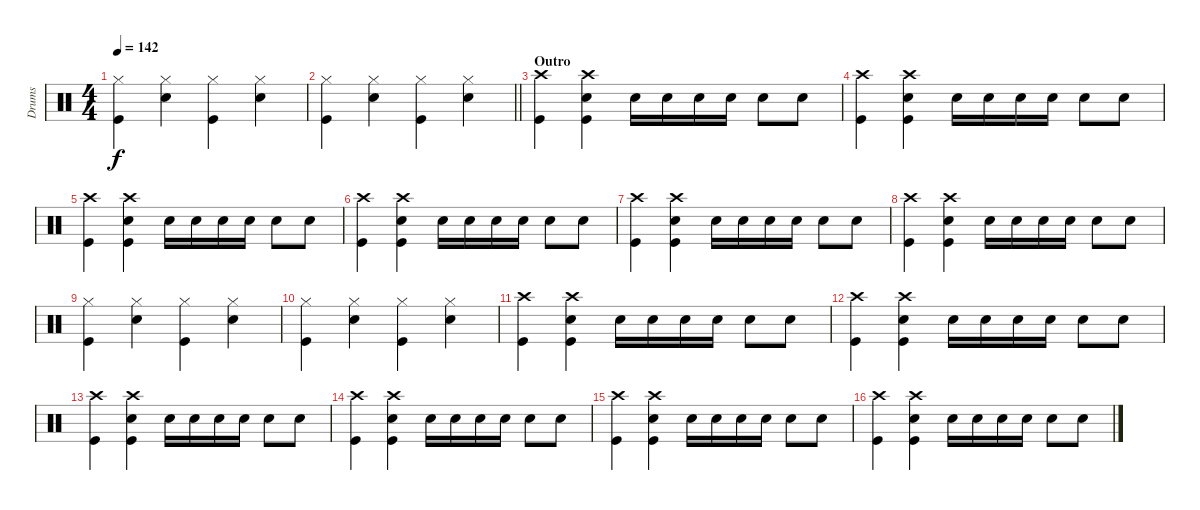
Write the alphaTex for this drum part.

\track ("Drums" "Drums") {instrument percussion}
\staff {score}
\articulation defaults
\ts (4 4)
\tempo 142
\clef neutral
\ks c
("Hi-Hat (closed)" "Kick (hit)").4{dy f} ("Hi-Hat (closed)" "Snare (hit) 2").4 ("Hi-Hat (closed)" "Kick (hit)").4 ("Hi-Hat (closed)" "Snare (hit) 2").4 |
\barLineRight lightlight
("Hi-Hat (closed)" "Kick (hit)").4 ("Hi-Hat (closed)" "Snare (hit) 2").4 ("Hi-Hat (closed)" "Kick (hit)").4 ("Hi-Hat (closed)" "Snare (hit) 2").4 |
\section ("" "Outro")
("Crash high (hit)" "Kick (hit)").4 ("Crash high (hit)" "Snare (hit) 2" "Kick (hit)").4 "Snare (hit) 2".16 "Snare (hit) 2".16 "Snare (hit) 2".16 "Snare (hit) 2".16 "Snare (hit) 2".8 "Snare (hit) 2".8 |
("Crash high (hit)" "Kick (hit)").4 ("Crash high (hit)" "Snare (hit) 2" "Kick (hit)").4 "Snare (hit) 2".16 "Snare (hit) 2".16 "Snare (hit) 2".16 "Snare (hit) 2".16 "Snare (hit) 2".8 "Snare (hit) 2".8 |
("Crash high (hit)" "Kick (hit)").4 ("Crash high (hit)" "Snare (hit) 2" "Kick (hit)").4 "Snare (hit) 2".16 "Snare (hit) 2".16 "Snare (hit) 2".16 "Snare (hit) 2".16 "Snare (hit) 2".8 "Snare (hit) 2".8 |
("Crash high (hit)" "Kick (hit)").4 ("Crash high (hit)" "Snare (hit) 2" "Kick (hit)").4 "Snare (hit) 2".16 "Snare (hit) 2".16 "Snare (hit) 2".16 "Snare (hit) 2".16 "Snare (hit) 2".8 "Snare (hit) 2".8 |
("Crash high (hit)" "Kick (hit)").4 ("Crash high (hit)" "Snare (hit) 2" "Kick (hit)").4 "Snare (hit) 2".16 "Snare (hit) 2".16 "Snare (hit) 2".16 "Snare (hit) 2".16 "Snare (hit) 2".8 "Snare (hit) 2".8 |
("Crash high (hit)" "Kick (hit)").4 ("Crash high (hit)" "Snare (hit) 2" "Kick (hit)").4 "Snare (hit) 2".16 "Snare (hit) 2".16 "Snare (hit) 2".16 "Snare (hit) 2".16 "Snare (hit) 2".8 "Snare (hit) 2".8 |
("Hi-Hat (closed)" "Kick (hit)").4 ("Hi-Hat (closed)" "Snare (hit) 2").4 ("Hi-Hat (closed)" "Kick (hit)").4 ("Hi-Hat (closed)" "Snare (hit) 2").4 |
("Hi-Hat (closed)" "Kick (hit)").4 ("Hi-Hat (closed)" "Snare (hit) 2").4 ("Hi-Hat (closed)" "Kick (hit)").4 ("Hi-Hat (closed)" "Snare (hit) 2").4 |
("Crash high (hit)" "Kick (hit)").4 ("Crash high (hit)" "Snare (hit) 2" "Kick (hit)").4 "Snare (hit) 2".16 "Snare (hit) 2".16 "Snare (hit) 2".16 "Snare (hit) 2".16 "Snare (hit) 2".8 "Snare (hit) 2".8 |
("Crash high (hit)" "Kick (hit)").4 ("Crash high (hit)" "Snare (hit) 2" "Kick (hit)").4 "Snare (hit) 2".16 "Snare (hit) 2".16 "Snare (hit) 2".16 "Snare (hit) 2".16 "Snare (hit) 2".8 "Snare (hit) 2".8 |
("Crash high (hit)" "Kick (hit)").4 ("Crash high (hit)" "Snare (hit) 2" "Kick (hit)").4 "Snare (hit) 2".16 "Snare (hit) 2".16 "Snare (hit) 2".16 "Snare (hit) 2".16 "Snare (hit) 2".8 "Snare (hit) 2".8 |
("Crash high (hit)" "Kick (hit)").4 ("Crash high (hit)" "Snare (hit) 2" "Kick (hit)").4 "Snare (hit) 2".16 "Snare (hit) 2".16 "Snare (hit) 2".16 "Snare (hit) 2".16 "Snare (hit) 2".8 "Snare (hit) 2".8 |
("Crash high (hit)" "Kick (hit)").4 ("Crash high (hit)" "Snare (hit) 2" "Kick (hit)").4 "Snare (hit) 2".16 "Snare (hit) 2".16 "Snare (hit) 2".16 "Snare (hit) 2".16 "Snare (hit) 2".8 "Snare (hit) 2".8 |
("Crash high (hit)" "Kick (hit)").4 ("Crash high (hit)" "Snare (hit) 2" "Kick (hit)").4 "Snare (hit) 2".16 "Snare (hit) 2".16 "Snare (hit) 2".16 "Snare (hit) 2".16 "Snare (hit) 2".8 "Snare (hit) 2".8
